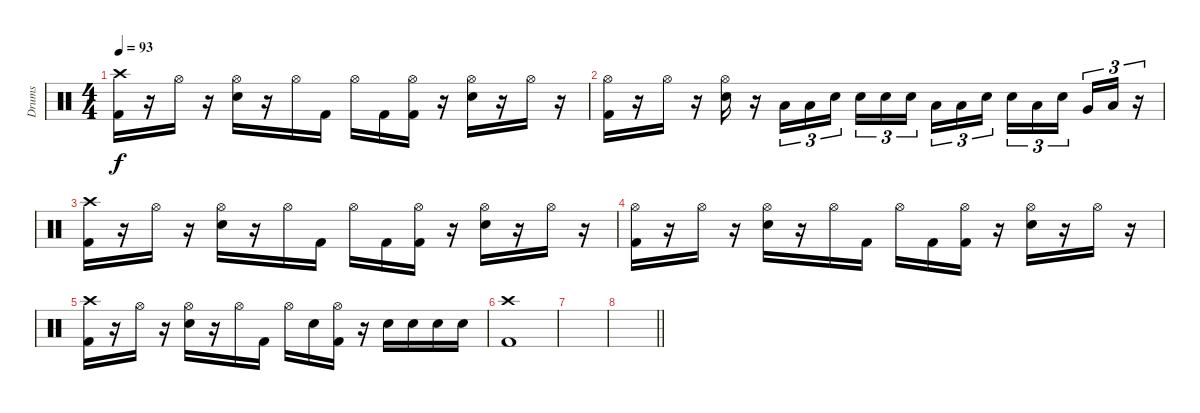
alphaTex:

\track ("Drums" "Drums") {instrument percussion}
\staff {score}
\articulation defaults
\ts (4 4)
\tempo 93
\clef neutral
\ks c
("Crash high (hit)" "Kick (hit) 2").16{dy f} r.16 "Hi-Hat (open)".16 r.16 ("Hi-Hat (open)" "Electric Snare (hit)").16 r.16 "Hi-Hat (open)".16 "Kick (hit) 2".16 "Hi-Hat (open)".16 "Kick (hit) 2".16 ("Hi-Hat (open)" "Kick (hit) 2").16 r.16 ("Hi-Hat (open)" "Electric Snare (hit)").16 r.16 "Hi-Hat (open)".16 r.16 |
("Hi-Hat (open)" "Kick (hit) 2").16 r.16 "Hi-Hat (open)".16 r.16 ("Hi-Hat (open)" "Electric Snare (hit)").16 r.16 "Low Tom (hit)".16{tu (3 2)} "Low Tom (hit)".16{tu (3 2)} "Electric Snare (hit)".16{tu (3 2)} "Electric Snare (hit)".16{tu (3 2)} "Electric Snare (hit)".16{tu (3 2)} "Electric Snare (hit)".16{tu (3 2) beam splitsecondary} "Low Tom (hit)".16{tu (3 2)} "Low Tom (hit)".16{tu (3 2)} "Electric Snare (hit)".16{tu (3 2)} "Electric Snare (hit)".16{tu (3 2)} "Low Tom (hit)".16{tu (3 2)} "Electric Snare (hit)".16{tu (3 2) beam splitsecondary} "Very Low Tom (hit)".16{tu (3 2)} "Low Tom (hit)".16{tu (3 2)} r.16{tu (3 2)} |
("Crash high (hit)" "Kick (hit) 2").16 r.16 "Hi-Hat (open)".16 r.16 ("Hi-Hat (open)" "Electric Snare (hit)").16 r.16 "Hi-Hat (open)".16 "Kick (hit) 2".16 "Hi-Hat (open)".16 "Kick (hit) 2".16 ("Hi-Hat (open)" "Kick (hit) 2").16 r.16 ("Hi-Hat (open)" "Electric Snare (hit)").16 r.16 "Hi-Hat (open)".16 r.16 |
("Hi-Hat (open)" "Kick (hit) 2").16 r.16 "Hi-Hat (open)".16 r.16 ("Hi-Hat (open)" "Electric Snare (hit)").16 r.16 "Hi-Hat (open)".16 "Kick (hit) 2".16 "Hi-Hat (open)".16 "Kick (hit) 2".16 ("Hi-Hat (open)" "Kick (hit) 2").16 r.16 ("Hi-Hat (open)" "Electric Snare (hit)").16 r.16 "Hi-Hat (open)".16 r.16 |
("Crash high (hit)" "Kick (hit) 2").16 r.16 "Hi-Hat (open)".16 r.16 ("Hi-Hat (open)" "Electric Snare (hit)").16 r.16 "Hi-Hat (open)".16 "Kick (hit) 2".16 "Hi-Hat (open)".16 "Electric Snare (hit)".16 ("Hi-Hat (open)" "Kick (hit) 2").16 r.16 "Electric Snare (hit)".16 "Electric Snare (hit)".16 "Electric Snare (hit)".16 "Electric Snare (hit)".16 |
("Crash high (hit)" "Kick (hit) 2").1 |
|
\barLineRight lightlight
